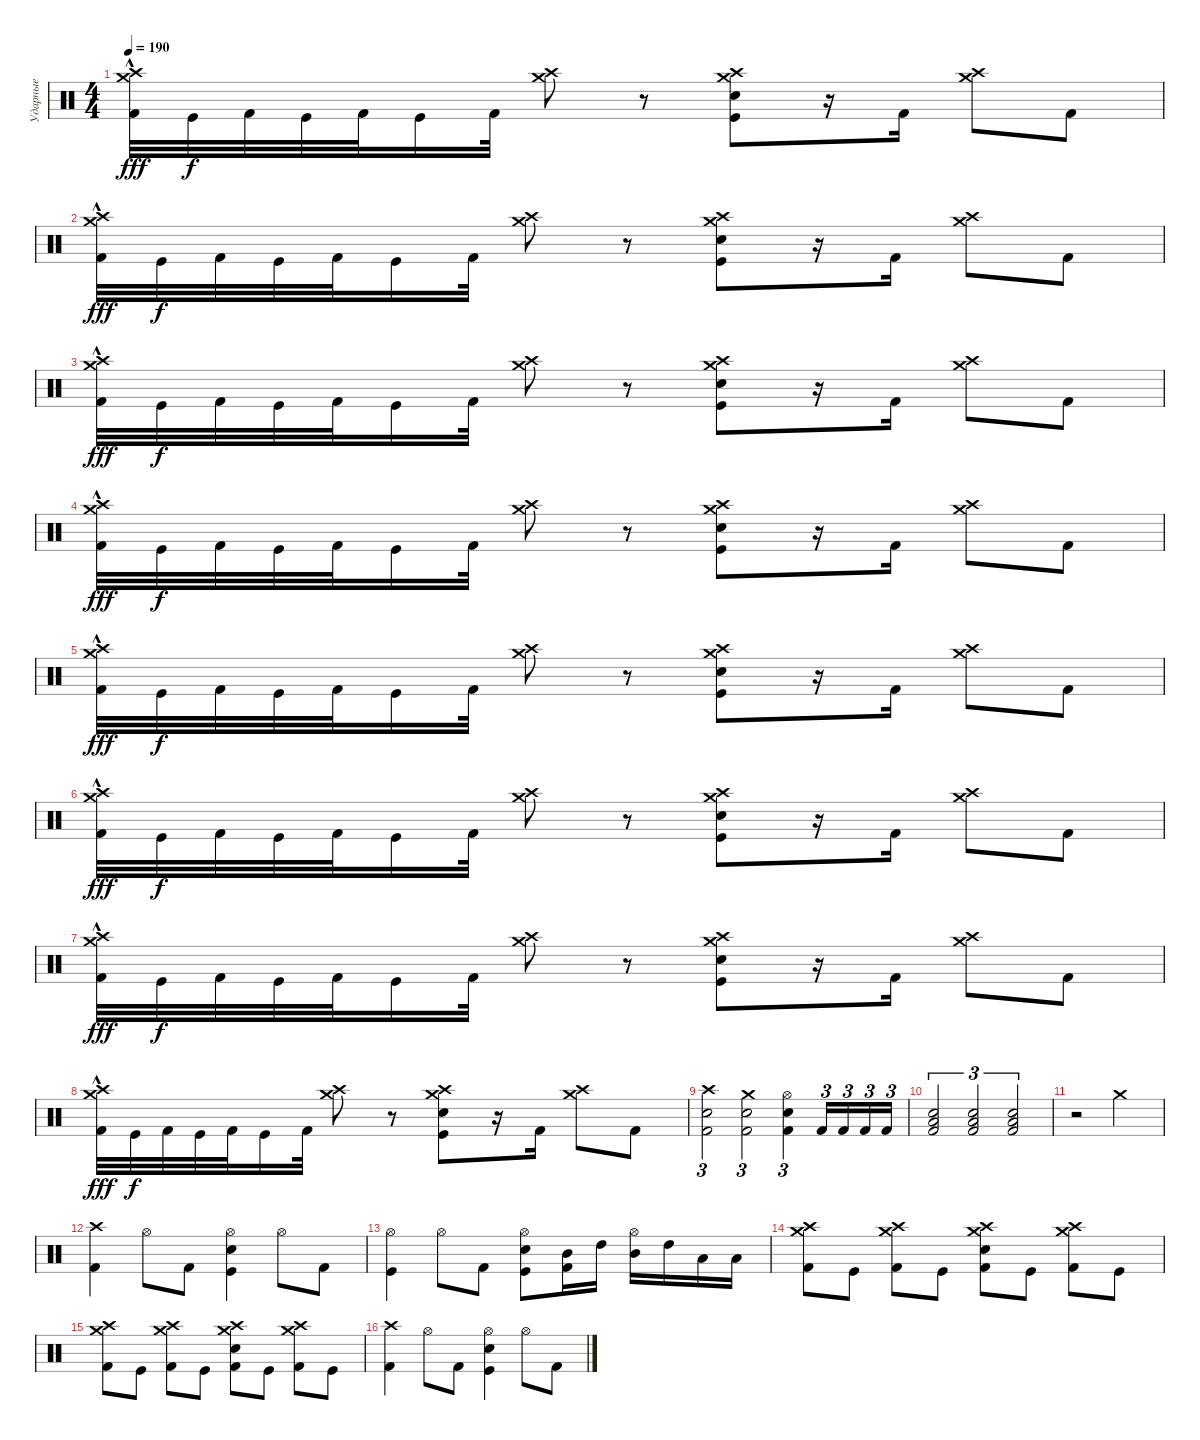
\track ("Ударные" "Ударные") {instrument percussion}
\staff {score}
\articulation defaults
\ts (4 4)
\tempo 190
\clef neutral
\ks c
("Crash high (hit)"{hac} "Crash medium (hit)" "Kick (hit) 2").32{dy fff} "Kick (hit)".32{dy f} "Kick (hit) 2".32 "Kick (hit)".32 "Kick (hit) 2".32 "Kick (hit)".16 "Kick (hit) 2".32 ("Crash high (hit)" "Crash medium (hit)").8 r.8 ("Crash high (hit)" "Crash medium (hit)" "Electric Snare (hit)" "Kick (hit)").8 r.16 "Kick (hit) 2".16 ("Crash high (hit)" "Crash medium (hit)").8 "Kick (hit) 2".8 |
("Crash high (hit)"{hac} "Crash medium (hit)" "Kick (hit) 2").32{dy fff} "Kick (hit)".32{dy f} "Kick (hit) 2".32 "Kick (hit)".32 "Kick (hit) 2".32 "Kick (hit)".16 "Kick (hit) 2".32 ("Crash high (hit)" "Crash medium (hit)").8 r.8 ("Crash high (hit)" "Crash medium (hit)" "Electric Snare (hit)" "Kick (hit)").8 r.16 "Kick (hit) 2".16 ("Crash high (hit)" "Crash medium (hit)").8 "Kick (hit) 2".8 |
("Crash high (hit)"{hac} "Crash medium (hit)" "Kick (hit) 2").32{dy fff} "Kick (hit)".32{dy f} "Kick (hit) 2".32 "Kick (hit)".32 "Kick (hit) 2".32 "Kick (hit)".16 "Kick (hit) 2".32 ("Crash high (hit)" "Crash medium (hit)").8 r.8 ("Crash medium (hit)" "Crash high (hit)" "Electric Snare (hit)" "Kick (hit)").8 r.16 "Kick (hit) 2".16 ("Crash medium (hit)" "Crash high (hit)").8 "Kick (hit) 2".8 |
("Crash high (hit)"{hac} "Crash medium (hit)" "Kick (hit) 2").32{dy fff} "Kick (hit)".32{dy f} "Kick (hit) 2".32 "Kick (hit)".32 "Kick (hit) 2".32 "Kick (hit)".16 "Kick (hit) 2".32 ("Crash high (hit)" "Crash medium (hit)").8 r.8 ("Crash medium (hit)" "Crash high (hit)" "Electric Snare (hit)" "Kick (hit)").8 r.16 "Kick (hit) 2".16 ("Crash medium (hit)" "Crash high (hit)").8 "Kick (hit) 2".8 |
("Crash high (hit)"{hac} "Crash medium (hit)" "Kick (hit) 2").32{dy fff} "Kick (hit)".32{dy f} "Kick (hit) 2".32 "Kick (hit)".32 "Kick (hit) 2".32 "Kick (hit)".16 "Kick (hit) 2".32 ("Crash high (hit)" "Crash medium (hit)").8 r.8 ("Crash medium (hit)" "Crash high (hit)" "Electric Snare (hit)" "Kick (hit)").8 r.16 "Kick (hit) 2".16 ("Crash medium (hit)" "Crash high (hit)").8 "Kick (hit) 2".8 |
("Crash high (hit)"{hac} "Crash medium (hit)" "Kick (hit) 2").32{dy fff} "Kick (hit)".32{dy f} "Kick (hit) 2".32 "Kick (hit)".32 "Kick (hit) 2".32 "Kick (hit)".16 "Kick (hit) 2".32 ("Crash high (hit)" "Crash medium (hit)").8 r.8 ("Crash medium (hit)" "Crash high (hit)" "Electric Snare (hit)" "Kick (hit)").8 r.16 "Kick (hit) 2".16 ("Crash medium (hit)" "Crash high (hit)").8 "Kick (hit) 2".8 |
("Crash high (hit)"{hac} "Crash medium (hit)" "Kick (hit) 2").32{dy fff} "Kick (hit)".32{dy f} "Kick (hit) 2".32 "Kick (hit)".32 "Kick (hit) 2".32 "Kick (hit)".16 "Kick (hit) 2".32 ("Crash high (hit)" "Crash medium (hit)").8 r.8 ("Crash medium (hit)" "Crash high (hit)" "Electric Snare (hit)" "Kick (hit)").8 r.16 "Kick (hit) 2".16 ("Crash medium (hit)" "Crash high (hit)").8 "Kick (hit) 2".8 |
("Crash high (hit)"{hac} "Crash medium (hit)" "Kick (hit) 2").32{dy fff} "Kick (hit)".32{dy f} "Kick (hit) 2".32 "Kick (hit)".32 "Kick (hit) 2".32 "Kick (hit)".16 "Kick (hit) 2".32 ("Crash high (hit)" "Crash medium (hit)").8 r.8 ("Crash medium (hit)" "Crash high (hit)" "Electric Snare (hit)" "Kick (hit)").8 r.16 "Kick (hit) 2".16 ("Crash medium (hit)" "Crash high (hit)").8 "Kick (hit) 2".8 |
("Crash high (hit)" "Electric Snare (hit)" "Kick (hit) 2").2{tu (3 2)} ("Crash medium (hit)" "Electric Snare (hit)" "Kick (hit) 2").2{tu (3 2)} ("Hi-Hat (open)" "Electric Snare (hit)" "Kick (hit) 2").4{tu (3 2)} "Kick (hit) 2".16{tu (3 2)} "Kick (hit) 2".16{tu (3 2)} "Kick (hit) 2".16{tu (3 2)} "Kick (hit) 2".16{tu (3 2)} |
("Electric Snare (hit)" "Low Tom (hit)" "Kick (hit) 2").2{tu (3 2)} ("Electric Snare (hit)" "Low Tom (hit)" "Kick (hit) 2").2{tu (3 2)} ("Electric Snare (hit)" "Low Tom (hit)" "Kick (hit) 2").2{tu (3 2)} |
r.2 "Crash medium (hit)".2 |
("Crash high (hit)" "Kick (hit) 2").4 "Hi-Hat (open)".8 "Kick (hit) 2".8 ("Hi-Hat (open)" "Electric Snare (hit)" "Kick (hit)").4 "Hi-Hat (open)".8 "Kick (hit) 2".8 |
("Hi-Hat (open)" "Kick (hit)").4 "Hi-Hat (open)".8 "Kick (hit) 2".8 ("Hi-Hat (open)" "Electric Snare (hit)" "Kick (hit)").8 ("Mid Tom (hit)" "Kick (hit) 2").16 "High Tom (hit)".16 ("Hi-Hat (open)" "Mid Tom (hit)").16 "High Tom (hit)".16 "Low Tom (hit)".16 "Low Tom (hit)".16 |
("Crash high (hit)" "Crash medium (hit)" "Kick (hit) 2").8 "Kick (hit)".8 ("Crash high (hit)" "Crash medium (hit)" "Kick (hit) 2").8 "Kick (hit)".8 ("Crash high (hit)" "Crash medium (hit)" "Electric Snare (hit)" "Kick (hit) 2").8 "Kick (hit)".8 ("Crash high (hit)" "Crash medium (hit)" "Kick (hit) 2").8 "Kick (hit)".8 |
("Crash high (hit)" "Crash medium (hit)" "Kick (hit) 2").8 "Kick (hit)".8 ("Crash high (hit)" "Crash medium (hit)" "Kick (hit) 2").8 "Kick (hit)".8 ("Crash high (hit)" "Crash medium (hit)" "Electric Snare (hit)" "Kick (hit) 2").8 "Kick (hit)".8 ("Crash high (hit)" "Crash medium (hit)" "Kick (hit) 2").8 "Kick (hit)".8 |
("Crash high (hit)" "Kick (hit) 2").4 "Hi-Hat (open)".8 "Kick (hit) 2".8 ("Hi-Hat (open)" "Electric Snare (hit)" "Kick (hit)").4 "Hi-Hat (open)".8 "Kick (hit) 2".8
